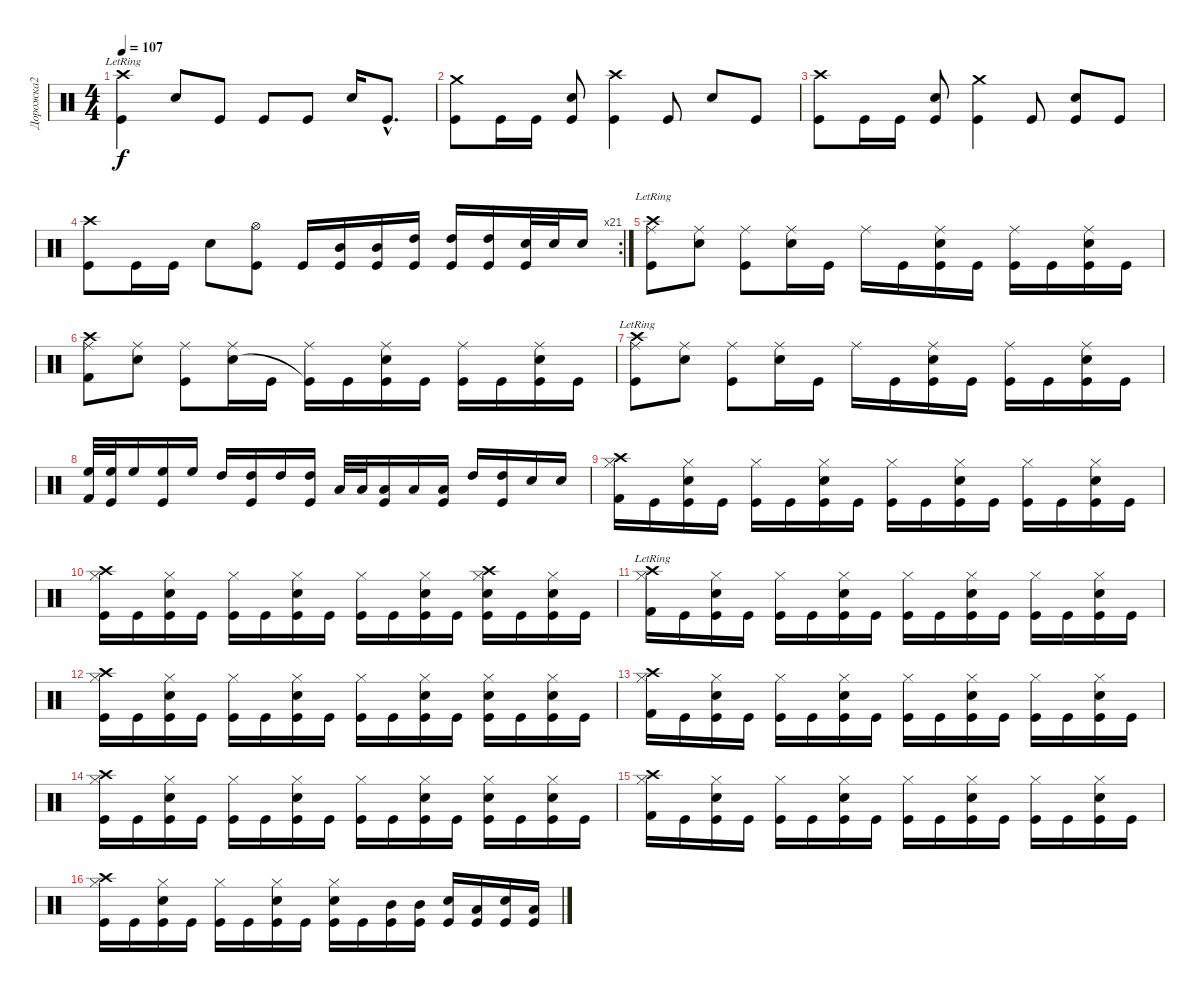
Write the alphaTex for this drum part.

\track ("Дорожка2" "Дорожка2") {instrument percussion}
\staff {score}
\articulation defaults
\ts (4 4)
\tempo 107
\clef neutral
\ks c
("Crash high (hit)"{lr} "Kick (hit)").4{dy f} "Electric Snare (hit)".8 "Kick (hit)".8 "Kick (hit)".8 "Kick (hit)".8 "Electric Snare (hit)".16 "Kick (hit)"{hac}.8{d} |
("Crash medium (hit)" "Kick (hit)").8 "Kick (hit)".16 "Kick (hit)".16 ("Electric Snare (hit)" "Kick (hit)").8 ("Crash high (hit)" "Kick (hit)").4 "Kick (hit)".8 "Electric Snare (hit)".8 "Kick (hit)".8 |
("Crash high (hit)" "Kick (hit)").8 "Kick (hit)".16 "Kick (hit)".16 ("Electric Snare (hit)" "Kick (hit)").8 ("Crash medium (hit)" "Kick (hit)").4 "Kick (hit)".8 ("Electric Snare (hit)" "Kick (hit)").8 "Kick (hit)".8 |
\rc 21
("Crash high (hit)" "Kick (hit)").8 "Kick (hit)".16 "Kick (hit)".16 "Electric Snare (hit)".8 ("Hi-Hat (open)" "Kick (hit)").8 "Kick (hit)".16 ("Mid Tom (hit)" "Kick (hit)").16 ("Mid Tom (hit)" "Kick (hit)").16 ("High Tom (hit)" "Kick (hit)").16 ("High Tom (hit)" "Kick (hit)").16 ("High Tom (hit)" "Kick (hit)").16 ("Electric Snare (hit)" "Kick (hit)").32 "Electric Snare (hit)".32 "Electric Snare (hit)".16 |
("Crash high (hit)"{lr} "Ride (middle)" "Kick (hit)").8 ("Ride (middle)" "Electric Snare (hit)").8 ("Ride (middle)" "Kick (hit)").8 ("Ride (middle)" "Electric Snare (hit)").16 "Kick (hit)".16 "Ride (middle)".16 "Kick (hit)".16 ("Ride (middle)" "Electric Snare (hit)" "Kick (hit)").16 "Kick (hit)".16 ("Ride (middle)" "Kick (hit)").16 "Kick (hit)".16 ("Ride (middle)" "Electric Snare (hit)" "Kick (hit)").16 "Kick (hit)".16 |
("Crash high (hit)" "Ride (middle)" "Kick (hit) 2").8 ("Ride (middle)" "Electric Snare (hit)").8 ("Ride (middle)" "Kick (hit)").8 ("Ride (middle)" "Electric Snare (hit)").16 "Kick (hit)".16 ("Ride (middle)" "Kick (hit)"{t}).16 "Kick (hit)".16 ("Ride (middle)" "Electric Snare (hit)" "Kick (hit)").16 "Kick (hit)".16 ("Ride (middle)" "Kick (hit)").16 "Kick (hit)".16 ("Ride (middle)" "Electric Snare (hit)" "Kick (hit)").16 "Kick (hit)".16 |
("Crash high (hit)"{lr} "Ride (middle)" "Kick (hit)").8 ("Ride (middle)" "Electric Snare (hit)").8 ("Ride (middle)" "Kick (hit)").8 ("Ride (middle)" "Electric Snare (hit)").16 "Kick (hit)".16 "Ride (middle)".16 "Kick (hit)".16 ("Ride (middle)" "Electric Snare (hit)" "Kick (hit)").16 "Kick (hit)".16 ("Ride (middle)" "Kick (hit)").16 "Kick (hit)".16 ("Ride (middle)" "Electric Snare (hit)" "Kick (hit)").16 "Kick (hit)".16 |
("High Floor Tom (hit)" "Kick (hit) 2").32 ("High Floor Tom (hit)" "Kick (hit)").32 "High Floor Tom (hit)".16 ("High Floor Tom (hit)" "Kick (hit)").16 "High Floor Tom (hit)".16 "High Tom (hit)".16 ("High Tom (hit)" "Kick (hit)").16 "High Tom (hit)".16 ("High Tom (hit)" "Kick (hit)").16 "Low Tom (hit)".32 "Low Tom (hit)".32 ("Low Tom (hit)" "Kick (hit)").16 "Low Tom (hit)".16 ("Low Tom (hit)" "Kick (hit)").16 "High Tom (hit)".16 ("High Tom (hit)" "Kick (hit)").16 "Electric Snare (hit)".16 "Electric Snare (hit)".16 |
("Crash high (hit)" "Hi-Hat (closed)" "Kick (hit) 2").16 "Kick (hit)".16 ("Hi-Hat (closed)" "Electric Snare (hit)" "Kick (hit)").16 "Kick (hit)".16 ("Hi-Hat (closed)" "Kick (hit)").16 "Kick (hit)".16 ("Hi-Hat (closed)" "Electric Snare (hit)" "Kick (hit)").16 "Kick (hit)".16 ("Hi-Hat (closed)" "Kick (hit)").16 "Kick (hit)".16 ("Hi-Hat (closed)" "Electric Snare (hit)" "Kick (hit)").16 "Kick (hit)".16 ("Hi-Hat (closed)" "Kick (hit)").16 "Kick (hit)".16 ("Hi-Hat (closed)" "Electric Snare (hit)" "Kick (hit)").16 "Kick (hit)".16 |
("Crash high (hit)" "Hi-Hat (closed)" "Kick (hit)").16 "Kick (hit)".16 ("Hi-Hat (closed)" "Electric Snare (hit)" "Kick (hit)").16 "Kick (hit)".16 ("Hi-Hat (closed)" "Kick (hit)").16 "Kick (hit)".16 ("Hi-Hat (closed)" "Electric Snare (hit)" "Kick (hit)").16 "Kick (hit)".16 ("Hi-Hat (closed)" "Kick (hit)").16 "Kick (hit)".16 ("Hi-Hat (closed)" "Electric Snare (hit)" "Kick (hit)").16 "Kick (hit)".16 ("Crash high (hit)" "Hi-Hat (closed)" "Electric Snare (hit)" "Kick (hit)").16 "Kick (hit)".16 ("Hi-Hat (closed)" "Electric Snare (hit)" "Kick (hit)").16 "Kick (hit)".16 |
("Crash high (hit)"{lr} "Hi-Hat (closed)" "Kick (hit) 2").16 "Kick (hit)".16 ("Hi-Hat (closed)" "Electric Snare (hit)" "Kick (hit)").16 "Kick (hit)".16 ("Hi-Hat (closed)" "Kick (hit)").16 "Kick (hit)".16 ("Hi-Hat (closed)" "Electric Snare (hit)" "Kick (hit)").16 "Kick (hit)".16 ("Hi-Hat (closed)" "Kick (hit)").16 "Kick (hit)".16 ("Hi-Hat (closed)" "Electric Snare (hit)" "Kick (hit)").16 "Kick (hit)".16 ("Hi-Hat (closed)" "Kick (hit)").16 "Kick (hit)".16 ("Hi-Hat (closed)" "Electric Snare (hit)" "Kick (hit)").16 "Kick (hit)".16 |
("Crash high (hit)" "Hi-Hat (closed)" "Kick (hit)").16 "Kick (hit)".16 ("Hi-Hat (closed)" "Electric Snare (hit)" "Kick (hit)").16 "Kick (hit)".16 ("Hi-Hat (closed)" "Kick (hit)").16 "Kick (hit)".16 ("Hi-Hat (closed)" "Electric Snare (hit)" "Kick (hit)").16 "Kick (hit)".16 ("Hi-Hat (closed)" "Kick (hit)").16 "Kick (hit)".16 ("Hi-Hat (closed)" "Electric Snare (hit)" "Kick (hit)").16 "Kick (hit)".16 ("Hi-Hat (closed)" "Electric Snare (hit)" "Kick (hit)").16 "Kick (hit)".16 ("Hi-Hat (closed)" "Electric Snare (hit)" "Kick (hit)").16 "Kick (hit)".16 |
("Crash high (hit)" "Hi-Hat (closed)" "Kick (hit) 2").16 "Kick (hit)".16 ("Hi-Hat (closed)" "Electric Snare (hit)" "Kick (hit)").16 "Kick (hit)".16 ("Hi-Hat (closed)" "Kick (hit)").16 "Kick (hit)".16 ("Hi-Hat (closed)" "Electric Snare (hit)" "Kick (hit)").16 "Kick (hit)".16 ("Hi-Hat (closed)" "Kick (hit)").16 "Kick (hit)".16 ("Hi-Hat (closed)" "Electric Snare (hit)" "Kick (hit)").16 "Kick (hit)".16 ("Hi-Hat (closed)" "Kick (hit)").16 "Kick (hit)".16 ("Hi-Hat (closed)" "Electric Snare (hit)" "Kick (hit)").16 "Kick (hit)".16 |
("Crash high (hit)" "Hi-Hat (closed)" "Kick (hit)").16 "Kick (hit)".16 ("Hi-Hat (closed)" "Electric Snare (hit)" "Kick (hit)").16 "Kick (hit)".16 ("Hi-Hat (closed)" "Kick (hit)").16 "Kick (hit)".16 ("Hi-Hat (closed)" "Electric Snare (hit)" "Kick (hit)").16 "Kick (hit)".16 ("Hi-Hat (closed)" "Kick (hit)").16 "Kick (hit)".16 ("Hi-Hat (closed)" "Electric Snare (hit)" "Kick (hit)").16 "Kick (hit)".16 ("Hi-Hat (closed)" "Electric Snare (hit)" "Kick (hit)").16 "Kick (hit)".16 ("Hi-Hat (closed)" "Electric Snare (hit)" "Kick (hit)").16 "Kick (hit)".16 |
("Crash high (hit)" "Hi-Hat (closed)" "Kick (hit) 2").16 "Kick (hit)".16 ("Hi-Hat (closed)" "Electric Snare (hit)" "Kick (hit)").16 "Kick (hit)".16 ("Hi-Hat (closed)" "Kick (hit)").16 "Kick (hit)".16 ("Hi-Hat (closed)" "Electric Snare (hit)" "Kick (hit)").16 "Kick (hit)".16 ("Hi-Hat (closed)" "Kick (hit)").16 "Kick (hit)".16 ("Hi-Hat (closed)" "Electric Snare (hit)" "Kick (hit)").16 "Kick (hit)".16 ("Hi-Hat (closed)" "Kick (hit)").16 "Kick (hit)".16 ("Hi-Hat (closed)" "Electric Snare (hit)" "Kick (hit)").16 "Kick (hit)".16 |
("Crash high (hit)" "Hi-Hat (closed)" "Kick (hit)").16 "Kick (hit)".16 ("Hi-Hat (closed)" "Electric Snare (hit)" "Kick (hit)").16 "Kick (hit)".16 ("Hi-Hat (closed)" "Kick (hit)").16 "Kick (hit)".16 ("Hi-Hat (closed)" "Electric Snare (hit)" "Kick (hit)").16 "Kick (hit)".16 ("Hi-Hat (closed)" "Electric Snare (hit)" "Kick (hit)").16 "Kick (hit)".16 ("Mid Tom (hit)" "Kick (hit)").16 ("Mid Tom (hit)" "Kick (hit)").16 ("Electric Snare (hit)" "Kick (hit)").16 ("Low Tom (hit)" "Kick (hit)").16 ("Electric Snare (hit)" "Kick (hit)").16 ("Low Tom (hit)" "Kick (hit)").16
